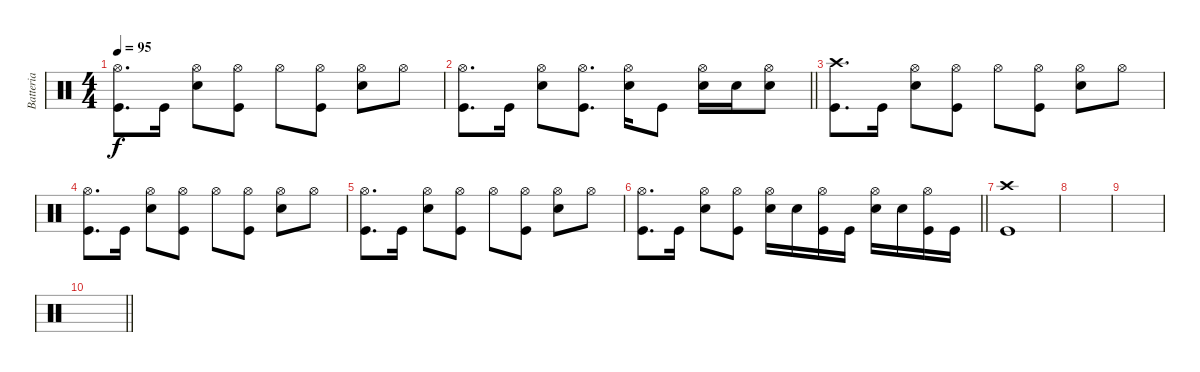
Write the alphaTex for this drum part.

\track ("Batteria" "Batteria") {instrument percussion}
\staff {score}
\articulation defaults
\ts (4 4)
\tempo 95
\clef neutral
\ks c
("Kick (hit)" "Hi-Hat (open)").8{d dy f} "Kick (hit)".16 ("Snare (hit) 2" "Hi-Hat (open)").8 ("Kick (hit)" "Hi-Hat (open)").8 "Hi-Hat (open)".8 ("Kick (hit)" "Hi-Hat (open)").8 ("Snare (hit) 2" "Hi-Hat (open)").8 "Hi-Hat (open)".8 |
\barLineRight lightlight
("Kick (hit)" "Hi-Hat (open)").8{d} "Kick (hit)".16 ("Snare (hit) 2" "Hi-Hat (open)").8 ("Kick (hit)" "Hi-Hat (open)").8{d} ("Snare (hit) 2" "Hi-Hat (open)").16 "Kick (hit)".8 ("Snare (hit) 2" "Hi-Hat (open)").16 "Snare (hit) 2".16 ("Snare (hit) 2" "Hi-Hat (open)").8 |
("Kick (hit)" "Crash high (hit)").8{d} "Kick (hit)".16 ("Snare (hit) 2" "Hi-Hat (open)").8 ("Kick (hit)" "Hi-Hat (open)").8 "Hi-Hat (open)".8 ("Kick (hit)" "Hi-Hat (open)").8 ("Snare (hit) 2" "Hi-Hat (open)").8 "Hi-Hat (open)".8 |
("Kick (hit)" "Hi-Hat (open)").8{d} "Kick (hit)".16 ("Snare (hit) 2" "Hi-Hat (open)").8 ("Kick (hit)" "Hi-Hat (open)").8 "Hi-Hat (open)".8 ("Kick (hit)" "Hi-Hat (open)").8 ("Snare (hit) 2" "Hi-Hat (open)").8 "Hi-Hat (open)".8 |
("Kick (hit)" "Hi-Hat (open)").8{d} "Kick (hit)".16 ("Snare (hit) 2" "Hi-Hat (open)").8 ("Kick (hit)" "Hi-Hat (open)").8 "Hi-Hat (open)".8 ("Kick (hit)" "Hi-Hat (open)").8 ("Snare (hit) 2" "Hi-Hat (open)").8 "Hi-Hat (open)".8 |
\barLineRight lightlight
("Kick (hit)" "Hi-Hat (open)").8{d} "Kick (hit)".16 ("Snare (hit) 2" "Hi-Hat (open)").8 ("Kick (hit)" "Hi-Hat (open)").8 ("Snare (hit) 2" "Hi-Hat (open)").16 "Snare (hit) 2".16 ("Kick (hit)" "Hi-Hat (open)").16 "Kick (hit)".16 ("Snare (hit) 2" "Hi-Hat (open)").16 "Snare (hit) 2".16 ("Kick (hit)" "Hi-Hat (open)").16 "Kick (hit)".16 |
("Kick (hit)" "Crash high (hit)").1 |
|
|
\barLineRight lightlight
